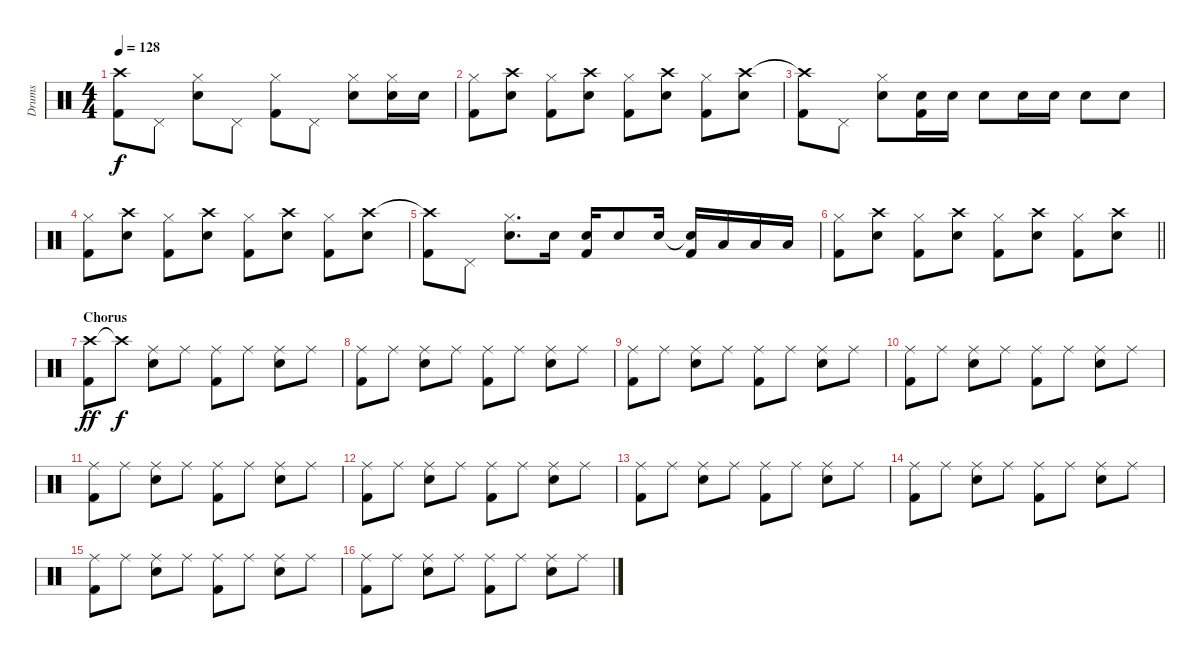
\track ("Drums" "Drums") {instrument percussion}
\staff {score}
\articulation defaults
\ts (4 4)
\tempo 128
\clef neutral
\ks c
("Crash high (hit)"{t} "Kick (hit) 2").8{dy f} "Pedal Hi-Hat (hit)".8 ("Hi-Hat (closed)" "Snare (hit) 2").8 "Pedal Hi-Hat (hit)".8 ("Hi-Hat (closed)" "Kick (hit) 2").8 "Pedal Hi-Hat (hit)".8 ("Hi-Hat (closed)" "Snare (hit) 2").8 ("Hi-Hat (closed)" "Snare (hit) 2").16 "Snare (hit) 2".16 |
("Hi-Hat (closed)" "Kick (hit) 2").8 ("Crash high (hit)" "Snare (hit) 2").8 ("Hi-Hat (closed)" "Kick (hit) 2").8 ("Crash high (hit)" "Snare (hit) 2").8 ("Hi-Hat (closed)" "Kick (hit) 2").8 ("Crash high (hit)" "Snare (hit) 2").8 ("Hi-Hat (closed)" "Kick (hit) 2").8 ("Crash high (hit)" "Snare (hit) 2").8 |
("Crash high (hit)"{t} "Kick (hit) 2").8 "Pedal Hi-Hat (hit)".8 ("Hi-Hat (closed)" "Snare (hit) 2").8 ("Snare (hit) 2" "Kick (hit) 2").16 "Snare (hit) 2".16 "Snare (hit) 2".8 "Snare (hit) 2".16 "Snare (hit) 2".16 "Snare (hit) 2".8 "Snare (hit) 2".8 |
("Hi-Hat (closed)" "Kick (hit) 2").8 ("Crash high (hit)" "Snare (hit) 2").8 ("Hi-Hat (closed)" "Kick (hit) 2").8 ("Crash high (hit)" "Snare (hit) 2").8 ("Hi-Hat (closed)" "Kick (hit) 2").8 ("Crash high (hit)" "Snare (hit) 2").8 ("Hi-Hat (closed)" "Kick (hit) 2").8 ("Crash high (hit)" "Snare (hit) 2").8 |
("Crash high (hit)"{t} "Kick (hit) 2").8 "Pedal Hi-Hat (hit)".8 ("Hi-Hat (closed)" "Snare (hit) 2").8{d} "Snare (hit) 2".16 ("Snare (hit) 2" "Kick (hit) 2").16 "Snare (hit) 2".8 "Snare (hit) 2".16 ("Snare (hit)"{t} "Kick (hit) 2").16 "Low Tom (hit)".16 "Low Tom (hit)".16 "Low Tom (hit)".16 |
\barLineRight lightlight
("Hi-Hat (closed)" "Kick (hit) 2").8 ("Crash high (hit)" "Snare (hit) 2").8 ("Hi-Hat (closed)" "Kick (hit) 2").8 ("Crash high (hit)" "Snare (hit) 2").8 ("Hi-Hat (closed)" "Kick (hit) 2").8 ("Crash high (hit)" "Snare (hit) 2").8 ("Hi-Hat (closed)" "Kick (hit) 2").8 ("Crash high (hit)" "Snare (hit) 2").8 |
\section ("" "Chorus")
("Crash high (hit)" "Kick (hit) 2").8{dy ff} "Crash high (hit)"{t}.8{dy f} ("Ride (middle)" "Snare (hit) 2").8 "Ride (middle)".8 ("Ride (middle)" "Kick (hit) 2").8 "Ride (middle)".8 ("Ride (middle)" "Snare (hit) 2").8 "Ride (middle)".8 |
("Ride (middle)" "Kick (hit) 2").8 "Ride (middle)".8 ("Ride (middle)" "Snare (hit) 2").8 "Ride (middle)".8 ("Ride (middle)" "Kick (hit) 2").8 "Ride (middle)".8 ("Ride (middle)" "Snare (hit) 2").8 "Ride (middle)".8 |
("Ride (middle)" "Kick (hit) 2").8 "Ride (middle)".8 ("Ride (middle)" "Snare (hit) 2").8 "Ride (middle)".8 ("Ride (middle)" "Kick (hit) 2").8 "Ride (middle)".8 ("Ride (middle)" "Snare (hit) 2").8 "Ride (middle)".8 |
("Ride (middle)" "Kick (hit) 2").8 "Ride (middle)".8 ("Ride (middle)" "Snare (hit) 2").8 "Ride (middle)".8 ("Ride (middle)" "Kick (hit) 2").8 "Ride (middle)".8 ("Ride (middle)" "Snare (hit) 2").8 "Ride (middle)".8 |
("Ride (middle)" "Kick (hit) 2").8 "Ride (middle)".8 ("Ride (middle)" "Snare (hit) 2").8 "Ride (middle)".8 ("Ride (middle)" "Kick (hit) 2").8 "Ride (middle)".8 ("Ride (middle)" "Snare (hit) 2").8 "Ride (middle)".8 |
("Ride (middle)" "Kick (hit) 2").8 "Ride (middle)".8 ("Ride (middle)" "Snare (hit) 2").8 "Ride (middle)".8 ("Ride (middle)" "Kick (hit) 2").8 "Ride (middle)".8 ("Ride (middle)" "Snare (hit) 2").8 "Ride (middle)".8 |
("Ride (middle)" "Kick (hit) 2").8 "Ride (middle)".8 ("Ride (middle)" "Snare (hit) 2").8 "Ride (middle)".8 ("Ride (middle)" "Kick (hit) 2").8 "Ride (middle)".8 ("Ride (middle)" "Snare (hit) 2").8 "Ride (middle)".8 |
("Ride (middle)" "Kick (hit) 2").8 "Ride (middle)".8 ("Ride (middle)" "Snare (hit) 2").8 "Ride (middle)".8 ("Ride (middle)" "Kick (hit) 2").8 "Ride (middle)".8 ("Ride (middle)" "Snare (hit) 2").8 "Ride (middle)".8 |
("Ride (middle)" "Kick (hit) 2").8 "Ride (middle)".8 ("Ride (middle)" "Snare (hit) 2").8 "Ride (middle)".8 ("Ride (middle)" "Kick (hit) 2").8 "Ride (middle)".8 ("Ride (middle)" "Snare (hit) 2").8 "Ride (middle)".8 |
("Ride (middle)" "Kick (hit) 2").8 "Ride (middle)".8 ("Ride (middle)" "Snare (hit) 2").8 "Ride (middle)".8 ("Ride (middle)" "Kick (hit) 2").8 "Ride (middle)".8 ("Ride (middle)" "Snare (hit) 2").8 "Ride (middle)".8
